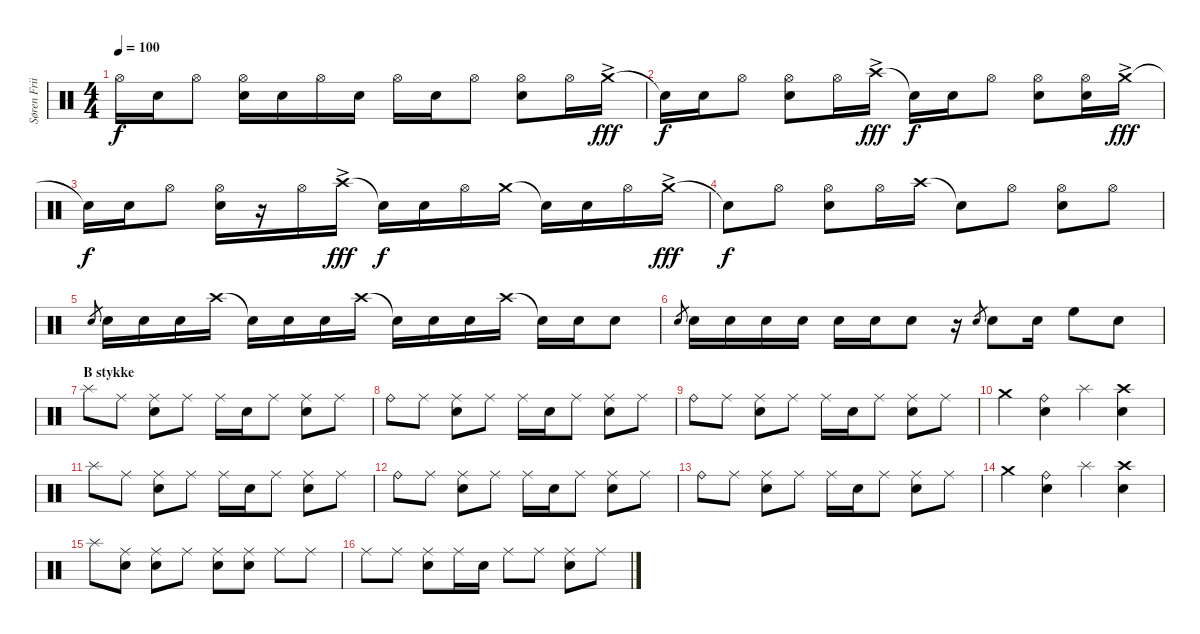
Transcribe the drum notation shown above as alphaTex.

\track ("Søren Friis (Drums)" "Søren Frii") {instrument percussion}
\staff {score}
\articulation defaults
\ts (4 4)
\tempo 100
\clef neutral
\ks c "Hi-Hat (open)".16{dy f} "Snare (hit) 2".16 "Hi-Hat (open)".8
("Hi-Hat (open)" "Snare (hit) 2").16 "Snare (hit) 2".16 "Hi-Hat (open)".16 "Snare (hit) 2".16 "Hi-Hat (open)".16 "Snare (hit) 2".16 "Hi-Hat (open)".8 ("Snare (hit) 2" "Hi-Hat (open)").8 "Hi-Hat (open)".16 "Crash medium (hit)"{ac}.16{dy fff} |
"Snare (hit)"{t}.16{dy f} "Snare (hit) 2".16 "Hi-Hat (open)".8 ("Hi-Hat (open)" "Snare (hit) 2").8 "Hi-Hat (open)".16 "Crash high (hit)"{ac}.16{dy fff} "Snare (hit)"{t}.16{dy f} "Snare (hit) 2".16 "Hi-Hat (open)".8 ("Hi-Hat (open)" "Snare (hit) 2").8 ("Hi-Hat (open)" "Snare (hit) 2").16 "Crash medium (hit)"{ac}.16{dy fff} |
"Snare (hit)"{t}.16{dy f} "Snare (hit) 2".16 "Hi-Hat (open)".8 ("Hi-Hat (open)" "Snare (hit) 2").16 r.16 "Hi-Hat (open)".16 "Crash high (hit)"{ac}.16{dy fff} "Snare (hit)"{t}.16{dy f} "Snare (hit) 2".16 "Hi-Hat (open)".16 "Crash medium (hit)".16 "Snare (hit)"{t}.16 "Snare (hit) 2".16 "Hi-Hat (open)".16 "Crash medium (hit)"{ac}.16{dy fff} |
"Snare (hit)"{t}.8{dy f} "Hi-Hat (open)".8 ("Hi-Hat (open)" "Snare (hit) 2").8 "Hi-Hat (open)".16 "Crash high (hit)".16 "Snare (hit)"{t}.8 "Hi-Hat (open)".8 ("Hi-Hat (open)" "Snare (hit) 2").8 "Hi-Hat (open)".8 |
"Snare (hit) 2".8{gr} "Snare (hit) 2".16 "Snare (hit) 2".16 "Snare (hit) 2".16 "Crash high (hit)".16 "Snare (hit)"{t}.16 "Snare (hit) 2".16 "Snare (hit) 2".16 "Crash high (hit)".16 "Snare (hit)"{t}.16 "Snare (hit) 2".16 "Snare (hit) 2".16 "Crash high (hit)".16 "Snare (hit)"{t}.16 "Snare (hit) 2".16 "Snare (hit) 2".8 |
"Snare (hit) 2".8{gr} "Snare (hit) 2".16 "Snare (hit) 2".16 "Snare (hit) 2".16 "Snare (hit) 2".16 "Snare (hit) 2".16 "Snare (hit) 2".16 "Snare (hit) 2".8 r.16 "Snare (hit) 2".8{gr} "Snare (hit) 2".8 "Snare (hit) 2".16 "High Floor Tom (hit)".8 "Snare (hit) 2".8 |
\section ("" "B stykke")
"Splash (hit)".8 "Ride (middle)".8 ("Ride (middle)" "Snare (hit) 2").8 "Ride (middle)".8 "Ride (middle)".16 "Snare (hit) 2".16 "Ride (middle)".8 ("Ride (middle)" "Snare (hit) 2").8 "Ride (middle)".8 |
"Ride (bell)".8 "Ride (middle)".8 ("Ride (middle)" "Snare (hit) 2").8 "Ride (middle)".8 "Ride (middle)".16 "Snare (hit) 2".16 "Ride (middle)".8 ("Ride (middle)" "Snare (hit) 2").8 "Ride (middle)".8 |
"Ride (bell)".8 "Ride (middle)".8 ("Ride (middle)" "Snare (hit) 2").8 "Ride (middle)".8 "Ride (middle)".16 "Snare (hit) 2".16 "Ride (middle)".8 ("Ride (middle)" "Snare (hit) 2").8 "Ride (middle)".8 |
"Crash medium (hit)".4 ("Ride (bell)" "Snare (hit) 2").4 "Splash (hit)".4 ("Crash high (hit)" "Snare (hit) 2").4 |
"Splash (hit)".8 "Ride (middle)".8 ("Ride (middle)" "Snare (hit) 2").8 "Ride (middle)".8 "Ride (middle)".16 "Snare (hit) 2".16 "Ride (middle)".8 ("Ride (middle)" "Snare (hit) 2").8 "Ride (middle)".8 |
"Ride (bell)".8 "Ride (middle)".8 ("Ride (middle)" "Snare (hit) 2").8 "Ride (middle)".8 "Ride (middle)".16 "Snare (hit) 2".16 "Ride (middle)".8 ("Ride (middle)" "Snare (hit) 2").8 "Ride (middle)".8 |
"Ride (bell)".8 "Ride (middle)".8 ("Ride (middle)" "Snare (hit) 2").8 "Ride (middle)".8 "Ride (middle)".16 "Snare (hit) 2".16 "Ride (middle)".8 ("Ride (middle)" "Snare (hit) 2").8 "Ride (middle)".8 |
"Crash medium (hit)".4 ("Ride (bell)" "Snare (hit) 2").4 "Splash (hit)".4 ("Crash high (hit)" "Snare (hit) 2").4 |
"Splash (hit)".8 ("Ride (middle)" "Snare (hit) 2").8 ("Ride (middle)" "Snare (hit) 2").8 "Ride (middle)".8 ("Ride (middle)" "Snare (hit) 2").8 ("Ride (middle)" "Snare (hit) 2").8 "Ride (middle)".8 "Ride (middle)".8 |
"Ride (middle)".8 "Ride (middle)".8 ("Ride (middle)" "Snare (hit) 2").8 "Ride (middle)".16 "Snare (hit) 2".16 "Ride (middle)".8 "Ride (middle)".8 ("Snare (hit) 2" "Ride (middle)").8 "Ride (middle)".8
